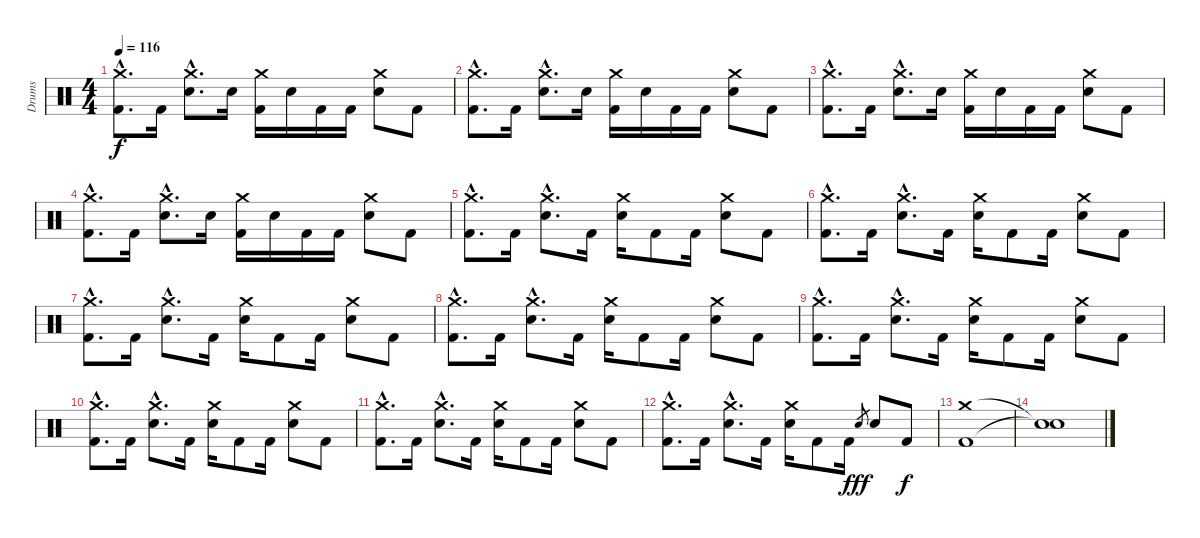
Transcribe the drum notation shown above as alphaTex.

\track ("Drums" "Drums") {instrument percussion}
\staff {score}
\articulation defaults
\ts (4 4)
\tempo 116
\clef neutral
\ks c
("Crash medium (hit)"{hac} "Kick (hit) 2"{hac}).8{d dy f} "Kick (hit) 2".16 ("Crash medium (hit)"{hac} "Electric Snare (hit)"{hac}).8{d} "Electric Snare (hit)".16 ("Crash medium (hit)" "Kick (hit) 2").16 "Electric Snare (hit)".16 "Kick (hit) 2".16 "Kick (hit) 2".16 ("Crash medium (hit)" "Electric Snare (hit)").8 "Kick (hit) 2".8 |
("Crash medium (hit)"{hac} "Kick (hit) 2"{hac}).8{d} "Kick (hit) 2".16 ("Crash medium (hit)"{hac} "Electric Snare (hit)"{hac}).8{d} "Electric Snare (hit)".16 ("Crash medium (hit)" "Kick (hit) 2").16 "Electric Snare (hit)".16 "Kick (hit) 2".16 "Kick (hit) 2".16 ("Crash medium (hit)" "Electric Snare (hit)").8 "Kick (hit) 2".8 |
("Crash medium (hit)"{hac} "Kick (hit) 2"{hac}).8{d} "Kick (hit) 2".16 ("Crash medium (hit)"{hac} "Electric Snare (hit)"{hac}).8{d} "Electric Snare (hit)".16 ("Crash medium (hit)" "Kick (hit) 2").16 "Electric Snare (hit)".16 "Kick (hit) 2".16 "Kick (hit) 2".16 ("Crash medium (hit)" "Electric Snare (hit)").8 "Kick (hit) 2".8 |
("Crash medium (hit)"{hac} "Kick (hit) 2"{hac}).8{d} "Kick (hit) 2".16 ("Crash medium (hit)"{hac} "Electric Snare (hit)"{hac}).8{d} "Electric Snare (hit)".16 ("Crash medium (hit)" "Kick (hit) 2").16 "Electric Snare (hit)".16 "Kick (hit) 2".16 "Kick (hit) 2".16 ("Crash medium (hit)" "Electric Snare (hit)").8 "Kick (hit) 2".8 |
("Crash medium (hit)"{hac} "Kick (hit) 2"{hac}).8{d} "Kick (hit) 2".16 ("Crash medium (hit)"{hac} "Electric Snare (hit)"{hac}).8{d} "Kick (hit) 2".16 ("Crash medium (hit)" "Electric Snare (hit)").16 "Kick (hit) 2".8 "Kick (hit) 2".16 ("Crash medium (hit)" "Electric Snare (hit)").8 "Kick (hit) 2".8 |
("Crash medium (hit)"{hac} "Kick (hit) 2"{hac}).8{d} "Kick (hit) 2".16 ("Crash medium (hit)"{hac} "Electric Snare (hit)"{hac}).8{d} "Kick (hit) 2".16 ("Crash medium (hit)" "Electric Snare (hit)").16 "Kick (hit) 2".8 "Kick (hit) 2".16 ("Crash medium (hit)" "Electric Snare (hit)").8 "Kick (hit) 2".8 |
("Crash medium (hit)"{hac} "Kick (hit) 2"{hac}).8{d} "Kick (hit) 2".16 ("Crash medium (hit)"{hac} "Electric Snare (hit)"{hac}).8{d} "Kick (hit) 2".16 ("Crash medium (hit)" "Electric Snare (hit)").16 "Kick (hit) 2".8 "Kick (hit) 2".16 ("Crash medium (hit)" "Electric Snare (hit)").8 "Kick (hit) 2".8 |
("Crash medium (hit)"{hac} "Kick (hit) 2"{hac}).8{d} "Kick (hit) 2".16 ("Crash medium (hit)"{hac} "Electric Snare (hit)"{hac}).8{d} "Kick (hit) 2".16 ("Crash medium (hit)" "Electric Snare (hit)").16 "Kick (hit) 2".8 "Kick (hit) 2".16 ("Crash medium (hit)" "Electric Snare (hit)").8 "Kick (hit) 2".8 |
("Crash medium (hit)"{hac} "Kick (hit) 2"{hac}).8{d} "Kick (hit) 2".16 ("Crash medium (hit)"{hac} "Electric Snare (hit)"{hac}).8{d} "Kick (hit) 2".16 ("Crash medium (hit)" "Electric Snare (hit)").16 "Kick (hit) 2".8 "Kick (hit) 2".16 ("Crash medium (hit)" "Electric Snare (hit)").8 "Kick (hit) 2".8 |
("Crash medium (hit)"{hac} "Kick (hit) 2"{hac}).8{d} "Kick (hit) 2".16 ("Crash medium (hit)"{hac} "Electric Snare (hit)"{hac}).8{d} "Kick (hit) 2".16 ("Crash medium (hit)" "Electric Snare (hit)").16 "Kick (hit) 2".8 "Kick (hit) 2".16 ("Crash medium (hit)" "Electric Snare (hit)").8 "Kick (hit) 2".8 |
("Crash medium (hit)"{hac} "Kick (hit) 2"{hac}).8{d} "Kick (hit) 2".16 ("Crash medium (hit)"{hac} "Electric Snare (hit)"{hac}).8{d} "Kick (hit) 2".16 ("Crash medium (hit)" "Electric Snare (hit)").16 "Kick (hit) 2".8 "Kick (hit) 2".16 ("Crash medium (hit)" "Electric Snare (hit)").8 "Kick (hit) 2".8 |
("Crash medium (hit)"{hac} "Kick (hit) 2"{hac}).8{d} "Kick (hit) 2".16 ("Crash medium (hit)"{hac} "Electric Snare (hit)"{hac}).8{d} "Kick (hit) 2".16 ("Crash medium (hit)" "Electric Snare (hit)").16 "Kick (hit) 2".8 "Kick (hit) 2".16 "Electric Snare (hit)".8{gr dy fff} "Electric Snare (hit)".8 "Kick (hit) 2".8{dy f} |
("Crash medium (hit)" "Kick (hit) 2").1 |
("Snare (hit)"{t} "Snare (hit)"{t}).1
